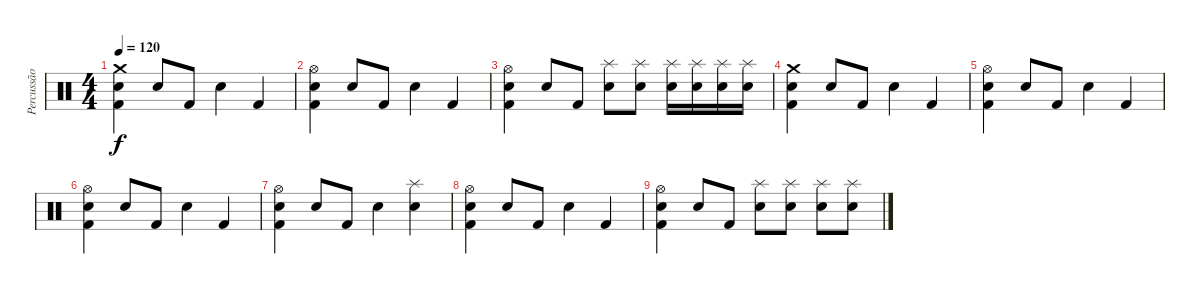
\track ("Percussão" "Percussão") {instrument percussion}
\staff {score}
\articulation defaults
\ts (4 4)
\tempo 120
\clef neutral
\ks c
("Crash medium (hit)" "Kick (hit) 2" "Snare (hit) 2").4{dy f} "Snare (hit) 2".8 "Kick (hit) 2".8 "Snare (hit) 2".4 "Kick (hit) 2".4 |
("Hi-Hat (open)" "Kick (hit) 2" "Snare (hit) 2").4 "Snare (hit) 2".8 "Kick (hit) 2".8 "Snare (hit) 2".4 "Kick (hit) 2".4 |
("Hi-Hat (open)" "Kick (hit) 2" "Snare (hit) 2").4 "Snare (hit) 2".8 "Kick (hit) 2".8 ("Splash (hit)" "Snare (hit) 2").8 ("Splash (hit)" "Snare (hit) 2").8 ("Splash (hit)" "Snare (hit) 2").16 ("Splash (hit)" "Snare (hit) 2").16 ("Splash (hit)" "Snare (hit) 2").16 ("Splash (hit)" "Snare (hit) 2").16 |
("Crash medium (hit)" "Kick (hit) 2" "Snare (hit) 2").4 "Snare (hit) 2".8 "Kick (hit) 2".8 "Snare (hit) 2".4 "Kick (hit) 2".4 |
("Hi-Hat (open)" "Kick (hit) 2" "Snare (hit) 2").4 "Snare (hit) 2".8 "Kick (hit) 2".8 "Snare (hit) 2".4 "Kick (hit) 2".4 |
("Hi-Hat (open)" "Kick (hit) 2" "Snare (hit) 2").4 "Snare (hit) 2".8 "Kick (hit) 2".8 "Snare (hit) 2".4 "Kick (hit) 2".4 |
("Hi-Hat (open)" "Kick (hit) 2" "Snare (hit) 2").4 "Snare (hit) 2".8 "Kick (hit) 2".8 "Snare (hit) 2".4 ("Splash (hit)" "Snare (hit) 2").4 |
("Hi-Hat (open)" "Kick (hit) 2" "Snare (hit) 2").4 "Snare (hit) 2".8 "Kick (hit) 2".8 "Snare (hit) 2".4 "Kick (hit) 2".4 |
("Hi-Hat (open)" "Kick (hit) 2" "Snare (hit) 2").4 "Snare (hit) 2".8 "Kick (hit) 2".8 ("Splash (hit)" "Snare (hit) 2").8 ("Splash (hit)" "Snare (hit) 2").8 ("Splash (hit)" "Snare (hit) 2").8 ("Splash (hit)" "Snare (hit) 2").8
